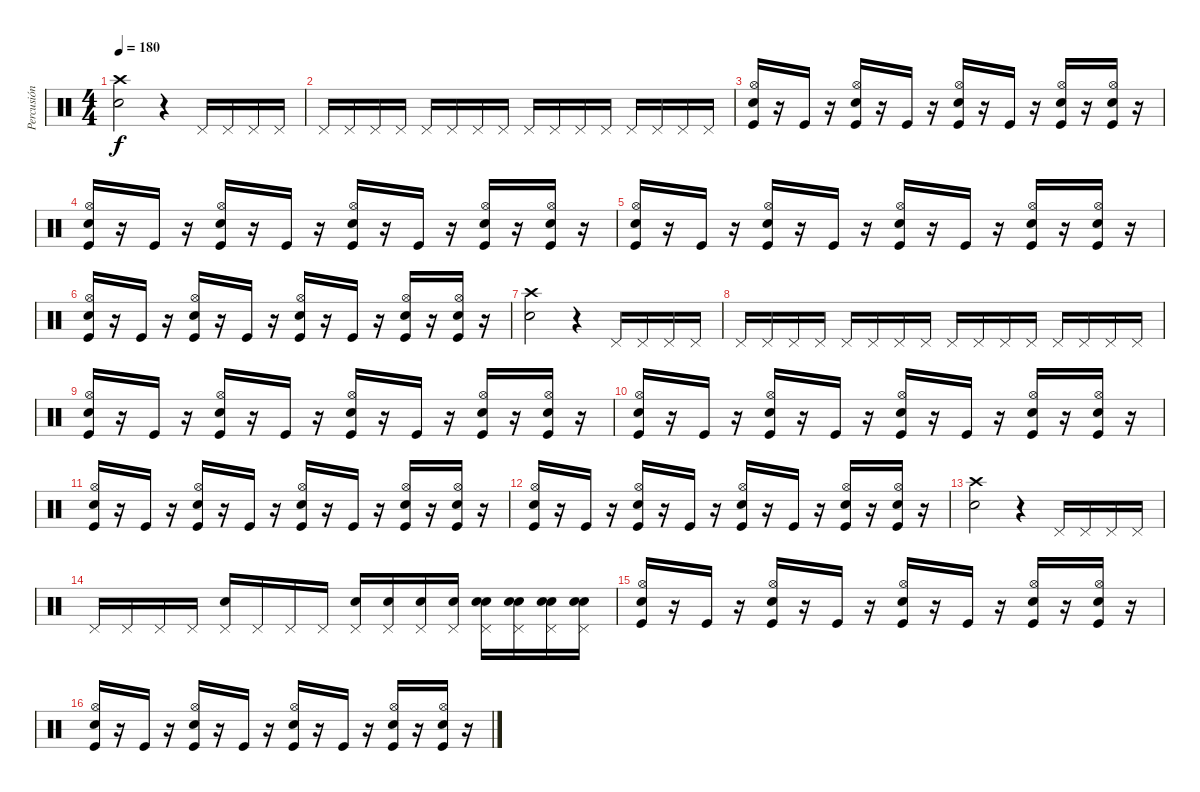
\track ("Percusión" "Percusión") {instrument percussion}
\staff {score}
\articulation defaults
\ts (4 4)
\tempo 180
\clef neutral
\ks c
("Crash high (hit)" "Snare (hit) 2").2{dy f} r.4 "Pedal Hi-Hat (hit)".16 "Pedal Hi-Hat (hit)".16 "Pedal Hi-Hat (hit)".16 "Pedal Hi-Hat (hit)".16 |
"Pedal Hi-Hat (hit)".16 "Pedal Hi-Hat (hit)".16 "Pedal Hi-Hat (hit)".16 "Pedal Hi-Hat (hit)".16 "Pedal Hi-Hat (hit)".16 "Pedal Hi-Hat (hit)".16 "Pedal Hi-Hat (hit)".16 "Pedal Hi-Hat (hit)".16 "Pedal Hi-Hat (hit)".16 "Pedal Hi-Hat (hit)".16 "Pedal Hi-Hat (hit)".16 "Pedal Hi-Hat (hit)".16 "Pedal Hi-Hat (hit)".16 "Pedal Hi-Hat (hit)".16 "Pedal Hi-Hat (hit)".16 "Pedal Hi-Hat (hit)".16 |
("Snare (hit) 2" "Hi-Hat (open)" "Kick (hit)").16 r.16 "Kick (hit)".16 r.16 ("Snare (hit) 2" "Hi-Hat (open)" "Kick (hit)").16 r.16 "Kick (hit)".16 r.16 ("Snare (hit) 2" "Hi-Hat (open)" "Kick (hit)").16 r.16 "Kick (hit)".16 r.16 ("Snare (hit) 2" "Hi-Hat (open)" "Kick (hit)").16 r.16 ("Snare (hit) 2" "Hi-Hat (open)" "Kick (hit)").16 r.16 |
("Snare (hit) 2" "Hi-Hat (open)" "Kick (hit)").16 r.16 "Kick (hit)".16 r.16 ("Snare (hit) 2" "Hi-Hat (open)" "Kick (hit)").16 r.16 "Kick (hit)".16 r.16 ("Snare (hit) 2" "Hi-Hat (open)" "Kick (hit)").16 r.16 "Kick (hit)".16 r.16 ("Snare (hit) 2" "Hi-Hat (open)" "Kick (hit)").16 r.16 ("Snare (hit) 2" "Hi-Hat (open)" "Kick (hit)").16 r.16 |
("Snare (hit) 2" "Hi-Hat (open)" "Kick (hit)").16 r.16 "Kick (hit)".16 r.16 ("Snare (hit) 2" "Hi-Hat (open)" "Kick (hit)").16 r.16 "Kick (hit)".16 r.16 ("Snare (hit) 2" "Hi-Hat (open)" "Kick (hit)").16 r.16 "Kick (hit)".16 r.16 ("Snare (hit) 2" "Hi-Hat (open)" "Kick (hit)").16 r.16 ("Snare (hit) 2" "Hi-Hat (open)" "Kick (hit)").16 r.16 |
("Snare (hit) 2" "Hi-Hat (open)" "Kick (hit)").16 r.16 "Kick (hit)".16 r.16 ("Snare (hit) 2" "Hi-Hat (open)" "Kick (hit)").16 r.16 "Kick (hit)".16 r.16 ("Snare (hit) 2" "Hi-Hat (open)" "Kick (hit)").16 r.16 "Kick (hit)".16 r.16 ("Snare (hit) 2" "Hi-Hat (open)" "Kick (hit)").16 r.16 ("Snare (hit) 2" "Hi-Hat (open)" "Kick (hit)").16 r.16 |
("Crash high (hit)" "Snare (hit) 2").2 r.4 "Pedal Hi-Hat (hit)".16 "Pedal Hi-Hat (hit)".16 "Pedal Hi-Hat (hit)".16 "Pedal Hi-Hat (hit)".16 |
"Pedal Hi-Hat (hit)".16 "Pedal Hi-Hat (hit)".16 "Pedal Hi-Hat (hit)".16 "Pedal Hi-Hat (hit)".16 "Pedal Hi-Hat (hit)".16 "Pedal Hi-Hat (hit)".16 "Pedal Hi-Hat (hit)".16 "Pedal Hi-Hat (hit)".16 "Pedal Hi-Hat (hit)".16 "Pedal Hi-Hat (hit)".16 "Pedal Hi-Hat (hit)".16 "Pedal Hi-Hat (hit)".16 "Pedal Hi-Hat (hit)".16 "Pedal Hi-Hat (hit)".16 "Pedal Hi-Hat (hit)".16 "Pedal Hi-Hat (hit)".16 |
("Snare (hit) 2" "Hi-Hat (open)" "Kick (hit)").16 r.16 "Kick (hit)".16 r.16 ("Snare (hit) 2" "Hi-Hat (open)" "Kick (hit)").16 r.16 "Kick (hit)".16 r.16 ("Snare (hit) 2" "Hi-Hat (open)" "Kick (hit)").16 r.16 "Kick (hit)".16 r.16 ("Snare (hit) 2" "Hi-Hat (open)" "Kick (hit)").16 r.16 ("Snare (hit) 2" "Hi-Hat (open)" "Kick (hit)").16 r.16 |
("Snare (hit) 2" "Hi-Hat (open)" "Kick (hit)").16 r.16 "Kick (hit)".16 r.16 ("Snare (hit) 2" "Hi-Hat (open)" "Kick (hit)").16 r.16 "Kick (hit)".16 r.16 ("Snare (hit) 2" "Hi-Hat (open)" "Kick (hit)").16 r.16 "Kick (hit)".16 r.16 ("Snare (hit) 2" "Hi-Hat (open)" "Kick (hit)").16 r.16 ("Snare (hit) 2" "Hi-Hat (open)" "Kick (hit)").16 r.16 |
("Snare (hit) 2" "Hi-Hat (open)" "Kick (hit)").16 r.16 "Kick (hit)".16 r.16 ("Snare (hit) 2" "Hi-Hat (open)" "Kick (hit)").16 r.16 "Kick (hit)".16 r.16 ("Snare (hit) 2" "Hi-Hat (open)" "Kick (hit)").16 r.16 "Kick (hit)".16 r.16 ("Snare (hit) 2" "Hi-Hat (open)" "Kick (hit)").16 r.16 ("Snare (hit) 2" "Hi-Hat (open)" "Kick (hit)").16 r.16 |
("Snare (hit) 2" "Hi-Hat (open)" "Kick (hit)").16 r.16 "Kick (hit)".16 r.16 ("Snare (hit) 2" "Hi-Hat (open)" "Kick (hit)").16 r.16 "Kick (hit)".16 r.16 ("Snare (hit) 2" "Hi-Hat (open)" "Kick (hit)").16 r.16 "Kick (hit)".16 r.16 ("Snare (hit) 2" "Hi-Hat (open)" "Kick (hit)").16 r.16 ("Snare (hit) 2" "Hi-Hat (open)" "Kick (hit)").16 r.16 |
("Crash high (hit)" "Snare (hit) 2").2 r.4 "Pedal Hi-Hat (hit)".16 "Pedal Hi-Hat (hit)".16 "Pedal Hi-Hat (hit)".16 "Pedal Hi-Hat (hit)".16 |
"Pedal Hi-Hat (hit)".16 "Pedal Hi-Hat (hit)".16 "Pedal Hi-Hat (hit)".16 "Pedal Hi-Hat (hit)".16 ("Electric Snare (hit)" "Pedal Hi-Hat (hit)").16 "Pedal Hi-Hat (hit)".16 "Pedal Hi-Hat (hit)".16 "Pedal Hi-Hat (hit)".16 ("Electric Snare (hit)" "Pedal Hi-Hat (hit)").16 ("Electric Snare (hit)" "Pedal Hi-Hat (hit)").16 ("Electric Snare (hit)" "Pedal Hi-Hat (hit)").16 ("Electric Snare (hit)" "Pedal Hi-Hat (hit)").16 ("Electric Snare (hit)" "Snare (hit) 2" "Pedal Hi-Hat (hit)").16 ("Electric Snare (hit)" "Snare (hit) 2" "Pedal Hi-Hat (hit)").16 ("Electric Snare (hit)" "Snare (hit) 2" "Pedal Hi-Hat (hit)").16 ("Electric Snare (hit)" "Snare (hit) 2" "Pedal Hi-Hat (hit)").16 |
("Snare (hit) 2" "Hi-Hat (open)" "Kick (hit)").16 r.16 "Kick (hit)".16 r.16 ("Snare (hit) 2" "Hi-Hat (open)" "Kick (hit)").16 r.16 "Kick (hit)".16 r.16 ("Snare (hit) 2" "Hi-Hat (open)" "Kick (hit)").16 r.16 "Kick (hit)".16 r.16 ("Snare (hit) 2" "Hi-Hat (open)" "Kick (hit)").16 r.16 ("Snare (hit) 2" "Hi-Hat (open)" "Kick (hit)").16 r.16 |
("Snare (hit) 2" "Hi-Hat (open)" "Kick (hit)").16 r.16 "Kick (hit)".16 r.16 ("Snare (hit) 2" "Hi-Hat (open)" "Kick (hit)").16 r.16 "Kick (hit)".16 r.16 ("Snare (hit) 2" "Hi-Hat (open)" "Kick (hit)").16 r.16 "Kick (hit)".16 r.16 ("Snare (hit) 2" "Hi-Hat (open)" "Kick (hit)").16 r.16 ("Snare (hit) 2" "Hi-Hat (open)" "Kick (hit)").16 r.16
